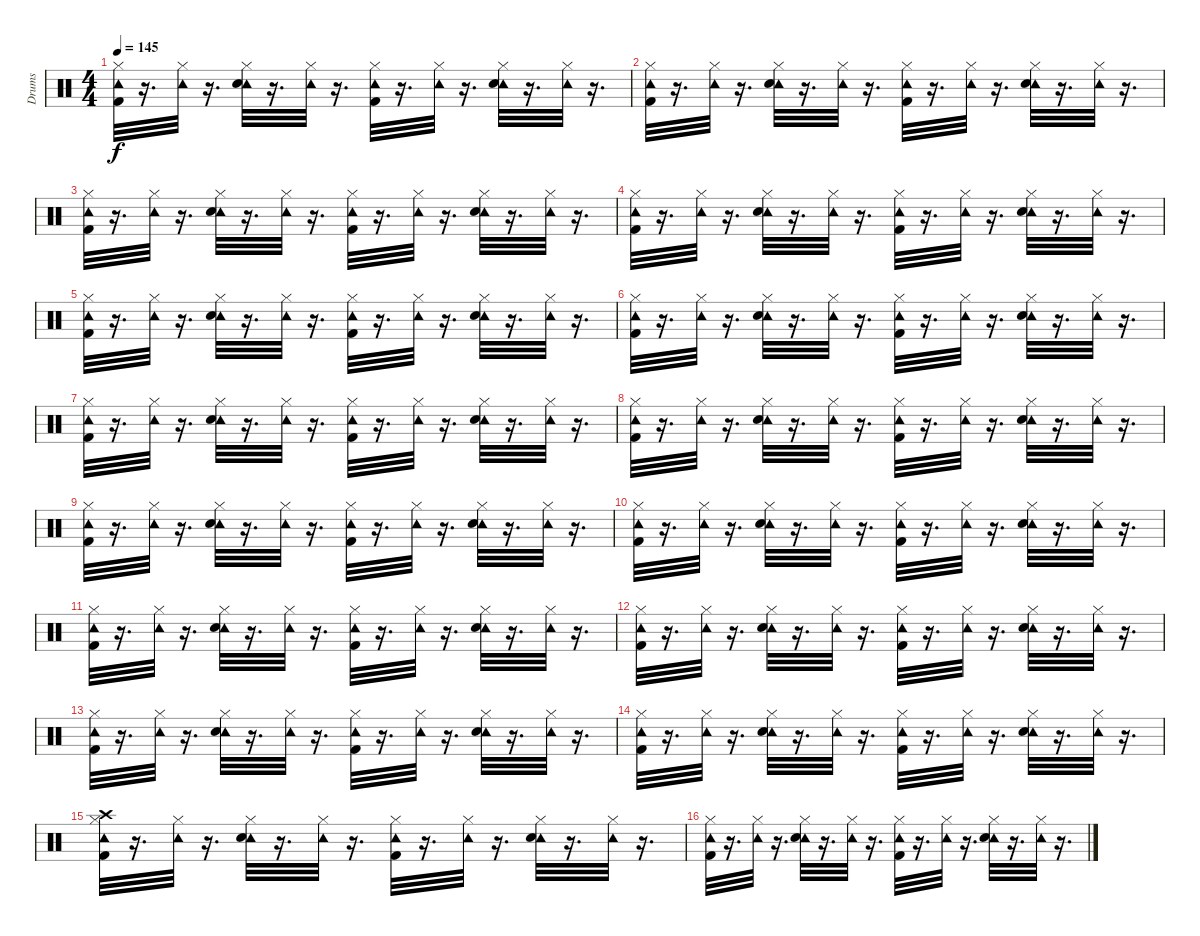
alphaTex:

\track ("Drums" "Drums") {instrument percussion}
\staff {score}
\articulation defaults
\ts (4 4)
\tempo 145
\clef neutral
\ks c
("Tambourine (hit)" "Kick (hit) 2" "Hi-Hat (closed)").32{dy f} r.16{d} ("Tambourine (hit)" "Hi-Hat (closed)").32 r.16{d} ("Tambourine (hit)" "Hi-Hat (closed)" "Snare (hit) 2").32 r.16{d} ("Tambourine (hit)" "Hi-Hat (closed)").32 r.16{d} ("Tambourine (hit)" "Kick (hit) 2" "Hi-Hat (closed)").32 r.16{d} ("Tambourine (hit)" "Hi-Hat (closed)").32 r.16{d} ("Tambourine (hit)" "Snare (hit) 2" "Hi-Hat (closed)").32 r.16{d} ("Tambourine (hit)" "Hi-Hat (closed)").32 r.16{d} |
("Tambourine (hit)" "Kick (hit) 2" "Hi-Hat (closed)").32 r.16{d} ("Tambourine (hit)" "Hi-Hat (closed)").32 r.16{d} ("Tambourine (hit)" "Hi-Hat (closed)" "Snare (hit) 2").32 r.16{d} ("Tambourine (hit)" "Hi-Hat (closed)").32 r.16{d} ("Tambourine (hit)" "Kick (hit) 2" "Hi-Hat (closed)").32 r.16{d} ("Tambourine (hit)" "Hi-Hat (closed)").32 r.16{d} ("Tambourine (hit)" "Snare (hit) 2" "Hi-Hat (closed)").32 r.16{d} ("Tambourine (hit)" "Hi-Hat (closed)").32 r.16{d} |
("Tambourine (hit)" "Kick (hit) 2" "Hi-Hat (closed)").32 r.16{d} ("Tambourine (hit)" "Hi-Hat (closed)").32 r.16{d} ("Tambourine (hit)" "Hi-Hat (closed)" "Snare (hit) 2").32 r.16{d} ("Tambourine (hit)" "Hi-Hat (closed)").32 r.16{d} ("Tambourine (hit)" "Kick (hit) 2" "Hi-Hat (closed)").32 r.16{d} ("Tambourine (hit)" "Hi-Hat (closed)").32 r.16{d} ("Tambourine (hit)" "Snare (hit) 2" "Hi-Hat (closed)").32 r.16{d} ("Tambourine (hit)" "Hi-Hat (closed)").32 r.16{d} |
("Tambourine (hit)" "Kick (hit) 2" "Hi-Hat (closed)").32 r.16{d} ("Tambourine (hit)" "Hi-Hat (closed)").32 r.16{d} ("Tambourine (hit)" "Hi-Hat (closed)" "Snare (hit) 2").32 r.16{d} ("Tambourine (hit)" "Hi-Hat (closed)").32 r.16{d} ("Tambourine (hit)" "Kick (hit) 2" "Hi-Hat (closed)").32 r.16{d} ("Tambourine (hit)" "Hi-Hat (closed)").32 r.16{d} ("Tambourine (hit)" "Snare (hit) 2" "Hi-Hat (closed)").32 r.16{d} ("Tambourine (hit)" "Hi-Hat (closed)").32 r.16{d} |
("Tambourine (hit)" "Kick (hit) 2" "Hi-Hat (closed)").32 r.16{d} ("Tambourine (hit)" "Hi-Hat (closed)").32 r.16{d} ("Tambourine (hit)" "Hi-Hat (closed)" "Snare (hit) 2").32 r.16{d} ("Tambourine (hit)" "Hi-Hat (closed)").32 r.16{d} ("Tambourine (hit)" "Kick (hit) 2" "Hi-Hat (closed)").32 r.16{d} ("Tambourine (hit)" "Hi-Hat (closed)").32 r.16{d} ("Tambourine (hit)" "Snare (hit) 2" "Hi-Hat (closed)").32 r.16{d} ("Tambourine (hit)" "Hi-Hat (closed)").32 r.16{d} |
("Tambourine (hit)" "Kick (hit) 2" "Hi-Hat (closed)").32 r.16{d} ("Tambourine (hit)" "Hi-Hat (closed)").32 r.16{d} ("Tambourine (hit)" "Hi-Hat (closed)" "Snare (hit) 2").32 r.16{d} ("Tambourine (hit)" "Hi-Hat (closed)").32 r.16{d} ("Tambourine (hit)" "Kick (hit) 2" "Hi-Hat (closed)").32 r.16{d} ("Tambourine (hit)" "Hi-Hat (closed)").32 r.16{d} ("Tambourine (hit)" "Snare (hit) 2" "Hi-Hat (closed)").32 r.16{d} ("Tambourine (hit)" "Hi-Hat (closed)").32 r.16{d} |
("Tambourine (hit)" "Kick (hit) 2" "Hi-Hat (closed)").32 r.16{d} ("Tambourine (hit)" "Hi-Hat (closed)").32 r.16{d} ("Tambourine (hit)" "Hi-Hat (closed)" "Snare (hit) 2").32 r.16{d} ("Tambourine (hit)" "Hi-Hat (closed)").32 r.16{d} ("Tambourine (hit)" "Kick (hit) 2" "Hi-Hat (closed)").32 r.16{d} ("Tambourine (hit)" "Hi-Hat (closed)").32 r.16{d} ("Tambourine (hit)" "Snare (hit) 2" "Hi-Hat (closed)").32 r.16{d} ("Tambourine (hit)" "Hi-Hat (closed)").32 r.16{d} |
("Tambourine (hit)" "Kick (hit) 2" "Hi-Hat (closed)").32 r.16{d} ("Tambourine (hit)" "Hi-Hat (closed)").32 r.16{d} ("Tambourine (hit)" "Hi-Hat (closed)" "Snare (hit) 2").32 r.16{d} ("Tambourine (hit)" "Hi-Hat (closed)").32 r.16{d} ("Tambourine (hit)" "Kick (hit) 2" "Hi-Hat (closed)").32 r.16{d} ("Tambourine (hit)" "Hi-Hat (closed)").32 r.16{d} ("Tambourine (hit)" "Snare (hit) 2" "Hi-Hat (closed)").32 r.16{d} ("Tambourine (hit)" "Hi-Hat (closed)").32 r.16{d} |
("Tambourine (hit)" "Kick (hit) 2" "Hi-Hat (closed)").32 r.16{d} ("Tambourine (hit)" "Hi-Hat (closed)").32 r.16{d} ("Tambourine (hit)" "Hi-Hat (closed)" "Snare (hit) 2").32 r.16{d} ("Tambourine (hit)" "Hi-Hat (closed)").32 r.16{d} ("Tambourine (hit)" "Kick (hit) 2" "Hi-Hat (closed)").32 r.16{d} ("Tambourine (hit)" "Hi-Hat (closed)").32 r.16{d} ("Tambourine (hit)" "Snare (hit) 2" "Hi-Hat (closed)").32 r.16{d} ("Tambourine (hit)" "Hi-Hat (closed)").32 r.16{d} |
("Tambourine (hit)" "Kick (hit) 2" "Hi-Hat (closed)").32 r.16{d} ("Tambourine (hit)" "Hi-Hat (closed)").32 r.16{d} ("Tambourine (hit)" "Hi-Hat (closed)" "Snare (hit) 2").32 r.16{d} ("Tambourine (hit)" "Hi-Hat (closed)").32 r.16{d} ("Tambourine (hit)" "Kick (hit) 2" "Hi-Hat (closed)").32 r.16{d} ("Tambourine (hit)" "Hi-Hat (closed)").32 r.16{d} ("Tambourine (hit)" "Snare (hit) 2" "Hi-Hat (closed)").32 r.16{d} ("Tambourine (hit)" "Hi-Hat (closed)").32 r.16{d} |
("Tambourine (hit)" "Kick (hit) 2" "Hi-Hat (closed)").32 r.16{d} ("Tambourine (hit)" "Hi-Hat (closed)").32 r.16{d} ("Tambourine (hit)" "Hi-Hat (closed)" "Snare (hit) 2").32 r.16{d} ("Tambourine (hit)" "Hi-Hat (closed)").32 r.16{d} ("Tambourine (hit)" "Kick (hit) 2" "Hi-Hat (closed)").32 r.16{d} ("Tambourine (hit)" "Hi-Hat (closed)").32 r.16{d} ("Tambourine (hit)" "Snare (hit) 2" "Hi-Hat (closed)").32 r.16{d} ("Tambourine (hit)" "Hi-Hat (closed)").32 r.16{d} |
("Tambourine (hit)" "Kick (hit) 2" "Hi-Hat (closed)").32 r.16{d} ("Tambourine (hit)" "Hi-Hat (closed)").32 r.16{d} ("Tambourine (hit)" "Hi-Hat (closed)" "Snare (hit) 2").32 r.16{d} ("Tambourine (hit)" "Hi-Hat (closed)").32 r.16{d} ("Tambourine (hit)" "Kick (hit) 2" "Hi-Hat (closed)").32 r.16{d} ("Tambourine (hit)" "Hi-Hat (closed)").32 r.16{d} ("Tambourine (hit)" "Snare (hit) 2" "Hi-Hat (closed)").32 r.16{d} ("Tambourine (hit)" "Hi-Hat (closed)").32 r.16{d} |
("Tambourine (hit)" "Kick (hit) 2" "Hi-Hat (closed)").32 r.16{d} ("Tambourine (hit)" "Hi-Hat (closed)").32 r.16{d} ("Tambourine (hit)" "Hi-Hat (closed)" "Snare (hit) 2").32 r.16{d} ("Tambourine (hit)" "Hi-Hat (closed)").32 r.16{d} ("Tambourine (hit)" "Kick (hit) 2" "Hi-Hat (closed)").32 r.16{d} ("Tambourine (hit)" "Hi-Hat (closed)").32 r.16{d} ("Tambourine (hit)" "Snare (hit) 2" "Hi-Hat (closed)").32 r.16{d} ("Tambourine (hit)" "Hi-Hat (closed)").32 r.16{d} |
("Tambourine (hit)" "Kick (hit) 2" "Hi-Hat (closed)").32 r.16{d} ("Tambourine (hit)" "Hi-Hat (closed)").32 r.16{d} ("Tambourine (hit)" "Hi-Hat (closed)" "Snare (hit) 2").32 r.16{d} ("Tambourine (hit)" "Hi-Hat (closed)").32 r.16{d} ("Tambourine (hit)" "Kick (hit) 2" "Hi-Hat (closed)").32 r.16{d} ("Tambourine (hit)" "Hi-Hat (closed)").32 r.16{d} ("Tambourine (hit)" "Snare (hit) 2" "Hi-Hat (closed)").32 r.16{d} ("Tambourine (hit)" "Hi-Hat (closed)").32 r.16{d} |
("Tambourine (hit)" "Kick (hit) 2" "Hi-Hat (closed)" "Crash high (hit)").32 r.16{d} ("Tambourine (hit)" "Hi-Hat (closed)").32 r.16{d} ("Tambourine (hit)" "Hi-Hat (closed)" "Snare (hit) 2").32 r.16{d} ("Tambourine (hit)" "Hi-Hat (closed)").32 r.16{d} ("Tambourine (hit)" "Kick (hit) 2" "Hi-Hat (closed)").32 r.16{d} ("Tambourine (hit)" "Hi-Hat (closed)").32 r.16{d} ("Tambourine (hit)" "Snare (hit) 2" "Hi-Hat (closed)").32 r.16{d} ("Tambourine (hit)" "Hi-Hat (closed)").32 r.16{d} |
("Tambourine (hit)" "Kick (hit) 2" "Hi-Hat (closed)").32 r.16{d} ("Tambourine (hit)" "Hi-Hat (closed)").32 r.16{d} ("Tambourine (hit)" "Hi-Hat (closed)" "Snare (hit) 2").32 r.16{d} ("Tambourine (hit)" "Hi-Hat (closed)").32 r.16{d} ("Tambourine (hit)" "Kick (hit) 2" "Hi-Hat (closed)").32 r.16{d} ("Tambourine (hit)" "Hi-Hat (closed)").32 r.16{d} ("Tambourine (hit)" "Snare (hit) 2" "Hi-Hat (closed)").32 r.16{d} ("Tambourine (hit)" "Hi-Hat (closed)").32 r.16{d}
